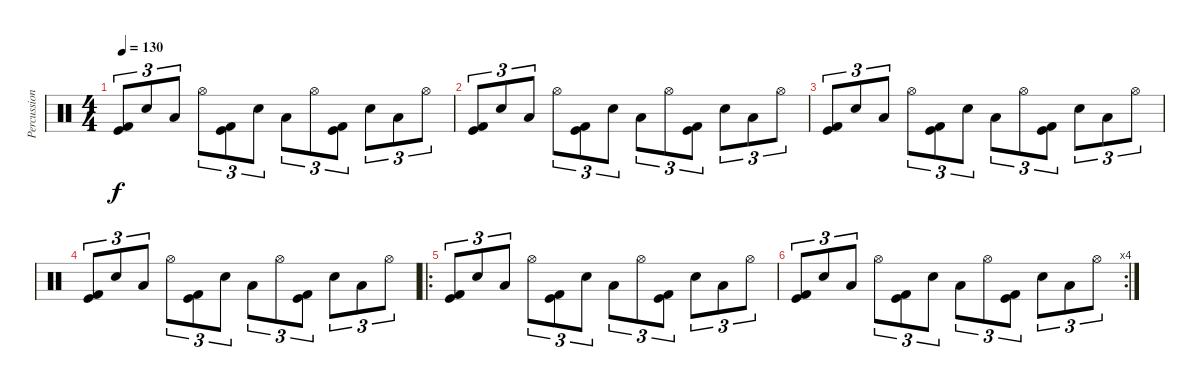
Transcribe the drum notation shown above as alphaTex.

\track ("Percussion" "Percussion") {instrument percussion}
\staff {score}
\articulation defaults
\ts (4 4)
\tempo 130
\clef neutral
\ks c
("Kick (hit)" "Kick (hit) 2").8{tu (3 2) dy f} "Snare (hit) 2".8{tu (3 2)} "Low Tom (hit)".8{tu (3 2)} "Hi-Hat (open)".8{tu (3 2)} ("Kick (hit)" "Kick (hit) 2").8{tu (3 2)} "Snare (hit) 2".8{tu (3 2)} "Low Tom (hit)".8{tu (3 2)} "Hi-Hat (open)".8{tu (3 2)} ("Kick (hit)" "Kick (hit) 2").8{tu (3 2)} "Snare (hit) 2".8{tu (3 2)} "Low Tom (hit)".8{tu (3 2)} "Hi-Hat (open)".8{tu (3 2)} |
("Kick (hit)" "Kick (hit) 2").8{tu (3 2)} "Snare (hit) 2".8{tu (3 2)} "Low Tom (hit)".8{tu (3 2)} "Hi-Hat (open)".8{tu (3 2)} ("Kick (hit)" "Kick (hit) 2").8{tu (3 2)} "Snare (hit) 2".8{tu (3 2)} "Low Tom (hit)".8{tu (3 2)} "Hi-Hat (open)".8{tu (3 2)} ("Kick (hit)" "Kick (hit) 2").8{tu (3 2)} "Snare (hit) 2".8{tu (3 2)} "Low Tom (hit)".8{tu (3 2)} "Hi-Hat (open)".8{tu (3 2)} |
("Kick (hit)" "Kick (hit) 2").8{tu (3 2)} "Snare (hit) 2".8{tu (3 2)} "Low Tom (hit)".8{tu (3 2)} "Hi-Hat (open)".8{tu (3 2)} ("Kick (hit)" "Kick (hit) 2").8{tu (3 2)} "Snare (hit) 2".8{tu (3 2)} "Low Tom (hit)".8{tu (3 2)} "Hi-Hat (open)".8{tu (3 2)} ("Kick (hit)" "Kick (hit) 2").8{tu (3 2)} "Snare (hit) 2".8{tu (3 2)} "Low Tom (hit)".8{tu (3 2)} "Hi-Hat (open)".8{tu (3 2)} |
("Kick (hit)" "Kick (hit) 2").8{tu (3 2)} "Snare (hit) 2".8{tu (3 2)} "Low Tom (hit)".8{tu (3 2)} "Hi-Hat (open)".8{tu (3 2)} ("Kick (hit)" "Kick (hit) 2").8{tu (3 2)} "Snare (hit) 2".8{tu (3 2)} "Low Tom (hit)".8{tu (3 2)} "Hi-Hat (open)".8{tu (3 2)} ("Kick (hit)" "Kick (hit) 2").8{tu (3 2)} "Snare (hit) 2".8{tu (3 2)} "Low Tom (hit)".8{tu (3 2)} "Hi-Hat (open)".8{tu (3 2)} |
\ro
("Kick (hit)" "Kick (hit) 2").8{tu (3 2)} "Snare (hit) 2".8{tu (3 2)} "Low Tom (hit)".8{tu (3 2)} "Hi-Hat (open)".8{tu (3 2)} ("Kick (hit)" "Kick (hit) 2").8{tu (3 2)} "Snare (hit) 2".8{tu (3 2)} "Low Tom (hit)".8{tu (3 2)} "Hi-Hat (open)".8{tu (3 2)} ("Kick (hit)" "Kick (hit) 2").8{tu (3 2)} "Snare (hit) 2".8{tu (3 2)} "Low Tom (hit)".8{tu (3 2)} "Hi-Hat (open)".8{tu (3 2)} |
\rc 4
("Kick (hit)" "Kick (hit) 2").8{tu (3 2)} "Snare (hit) 2".8{tu (3 2)} "Low Tom (hit)".8{tu (3 2)} "Hi-Hat (open)".8{tu (3 2)} ("Kick (hit)" "Kick (hit) 2").8{tu (3 2)} "Snare (hit) 2".8{tu (3 2)} "Low Tom (hit)".8{tu (3 2)} "Hi-Hat (open)".8{tu (3 2)} ("Kick (hit)" "Kick (hit) 2").8{tu (3 2)} "Snare (hit) 2".8{tu (3 2)} "Low Tom (hit)".8{tu (3 2)} "Hi-Hat (open)".8{tu (3 2)}
